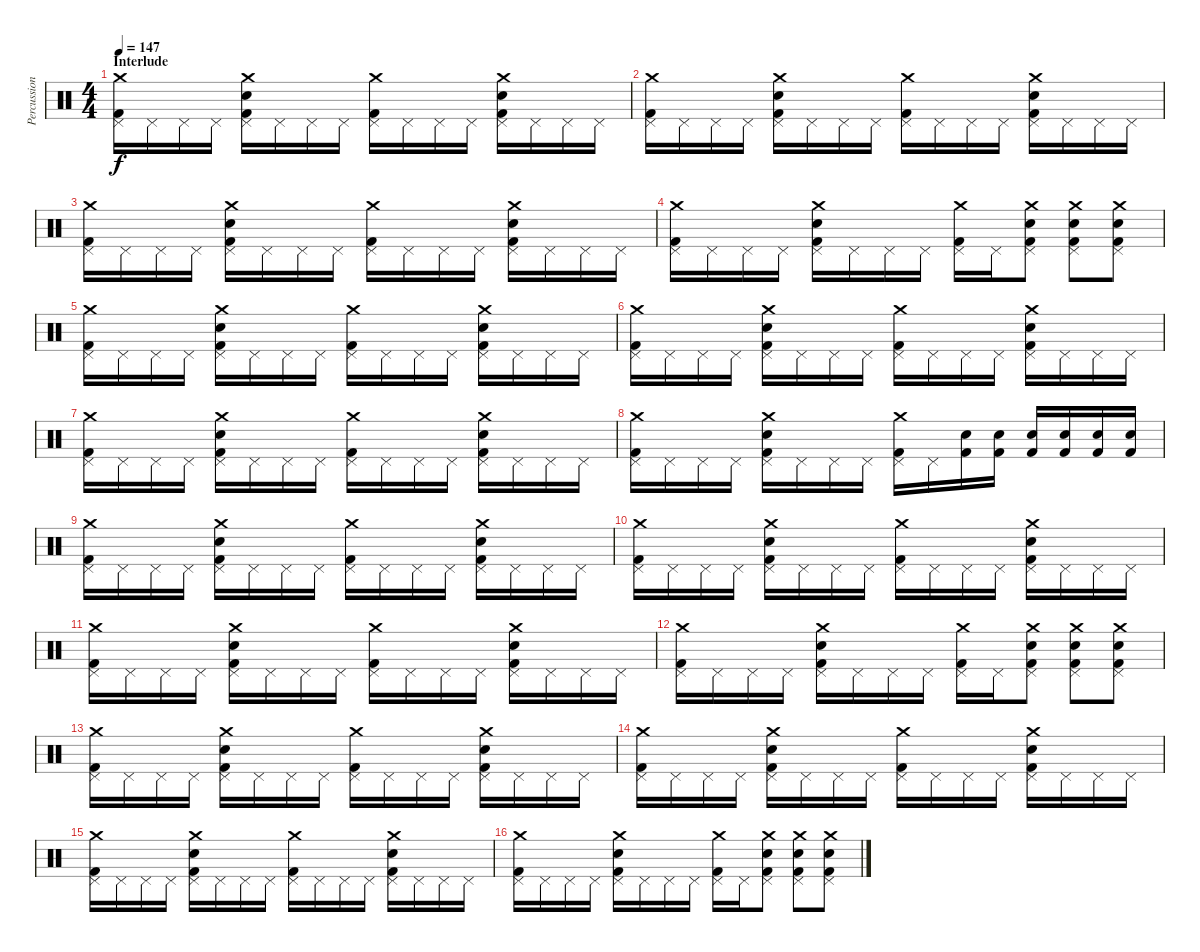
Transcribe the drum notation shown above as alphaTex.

\track ("Percussions" "Percussion") {instrument percussion}
\staff {score}
\articulation defaults
\ts (4 4)
\section ("" "Interlude")
\tempo 147
\clef neutral
\ks c
("Crash medium (hit)" "Pedal Hi-Hat (hit)" "Kick (hit) 2").16{dy f} "Pedal Hi-Hat (hit)".16 "Pedal Hi-Hat (hit)".16 "Pedal Hi-Hat (hit)".16 ("Crash medium (hit)" "Pedal Hi-Hat (hit)" "Electric Snare (hit)" "Kick (hit) 2").16 "Pedal Hi-Hat (hit)".16 "Pedal Hi-Hat (hit)".16 "Pedal Hi-Hat (hit)".16 ("Crash medium (hit)" "Pedal Hi-Hat (hit)" "Kick (hit) 2").16 "Pedal Hi-Hat (hit)".16 "Pedal Hi-Hat (hit)".16 "Pedal Hi-Hat (hit)".16 ("Crash medium (hit)" "Pedal Hi-Hat (hit)" "Electric Snare (hit)" "Kick (hit) 2").16 "Pedal Hi-Hat (hit)".16 "Pedal Hi-Hat (hit)".16 "Pedal Hi-Hat (hit)".16 |
("Crash medium (hit)" "Pedal Hi-Hat (hit)" "Kick (hit) 2").16 "Pedal Hi-Hat (hit)".16 "Pedal Hi-Hat (hit)".16 "Pedal Hi-Hat (hit)".16 ("Crash medium (hit)" "Pedal Hi-Hat (hit)" "Electric Snare (hit)" "Kick (hit) 2").16 "Pedal Hi-Hat (hit)".16 "Pedal Hi-Hat (hit)".16 "Pedal Hi-Hat (hit)".16 ("Crash medium (hit)" "Pedal Hi-Hat (hit)" "Kick (hit) 2").16 "Pedal Hi-Hat (hit)".16 "Pedal Hi-Hat (hit)".16 "Pedal Hi-Hat (hit)".16 ("Crash medium (hit)" "Pedal Hi-Hat (hit)" "Electric Snare (hit)" "Kick (hit) 2").16 "Pedal Hi-Hat (hit)".16 "Pedal Hi-Hat (hit)".16 "Pedal Hi-Hat (hit)".16 |
("Crash medium (hit)" "Pedal Hi-Hat (hit)" "Kick (hit) 2").16 "Pedal Hi-Hat (hit)".16 "Pedal Hi-Hat (hit)".16 "Pedal Hi-Hat (hit)".16 ("Crash medium (hit)" "Pedal Hi-Hat (hit)" "Electric Snare (hit)" "Kick (hit) 2").16 "Pedal Hi-Hat (hit)".16 "Pedal Hi-Hat (hit)".16 "Pedal Hi-Hat (hit)".16 ("Crash medium (hit)" "Pedal Hi-Hat (hit)" "Kick (hit) 2").16 "Pedal Hi-Hat (hit)".16 "Pedal Hi-Hat (hit)".16 "Pedal Hi-Hat (hit)".16 ("Crash medium (hit)" "Pedal Hi-Hat (hit)" "Electric Snare (hit)" "Kick (hit) 2").16 "Pedal Hi-Hat (hit)".16 "Pedal Hi-Hat (hit)".16 "Pedal Hi-Hat (hit)".16 |
("Crash medium (hit)" "Pedal Hi-Hat (hit)" "Kick (hit) 2").16 "Pedal Hi-Hat (hit)".16 "Pedal Hi-Hat (hit)".16 "Pedal Hi-Hat (hit)".16 ("Crash medium (hit)" "Pedal Hi-Hat (hit)" "Electric Snare (hit)" "Kick (hit) 2").16 "Pedal Hi-Hat (hit)".16 "Pedal Hi-Hat (hit)".16 "Pedal Hi-Hat (hit)".16 ("Crash medium (hit)" "Pedal Hi-Hat (hit)" "Kick (hit) 2").16 "Pedal Hi-Hat (hit)".16 ("Crash medium (hit)" "Pedal Hi-Hat (hit)" "Electric Snare (hit)" "Kick (hit) 2").8 ("Crash medium (hit)" "Pedal Hi-Hat (hit)" "Electric Snare (hit)" "Kick (hit) 2").8 ("Crash medium (hit)" "Pedal Hi-Hat (hit)" "Electric Snare (hit)" "Kick (hit) 2").8 |
("Crash medium (hit)" "Pedal Hi-Hat (hit)" "Kick (hit) 2").16 "Pedal Hi-Hat (hit)".16 "Pedal Hi-Hat (hit)".16 "Pedal Hi-Hat (hit)".16 ("Crash medium (hit)" "Pedal Hi-Hat (hit)" "Electric Snare (hit)" "Kick (hit) 2").16 "Pedal Hi-Hat (hit)".16 "Pedal Hi-Hat (hit)".16 "Pedal Hi-Hat (hit)".16 ("Crash medium (hit)" "Pedal Hi-Hat (hit)" "Kick (hit) 2").16 "Pedal Hi-Hat (hit)".16 "Pedal Hi-Hat (hit)".16 "Pedal Hi-Hat (hit)".16 ("Crash medium (hit)" "Pedal Hi-Hat (hit)" "Electric Snare (hit)" "Kick (hit) 2").16 "Pedal Hi-Hat (hit)".16 "Pedal Hi-Hat (hit)".16 "Pedal Hi-Hat (hit)".16 |
("Crash medium (hit)" "Pedal Hi-Hat (hit)" "Kick (hit) 2").16 "Pedal Hi-Hat (hit)".16 "Pedal Hi-Hat (hit)".16 "Pedal Hi-Hat (hit)".16 ("Crash medium (hit)" "Pedal Hi-Hat (hit)" "Electric Snare (hit)" "Kick (hit) 2").16 "Pedal Hi-Hat (hit)".16 "Pedal Hi-Hat (hit)".16 "Pedal Hi-Hat (hit)".16 ("Crash medium (hit)" "Pedal Hi-Hat (hit)" "Kick (hit) 2").16 "Pedal Hi-Hat (hit)".16 "Pedal Hi-Hat (hit)".16 "Pedal Hi-Hat (hit)".16 ("Crash medium (hit)" "Pedal Hi-Hat (hit)" "Electric Snare (hit)" "Kick (hit) 2").16 "Pedal Hi-Hat (hit)".16 "Pedal Hi-Hat (hit)".16 "Pedal Hi-Hat (hit)".16 |
("Crash medium (hit)" "Pedal Hi-Hat (hit)" "Kick (hit) 2").16 "Pedal Hi-Hat (hit)".16 "Pedal Hi-Hat (hit)".16 "Pedal Hi-Hat (hit)".16 ("Crash medium (hit)" "Pedal Hi-Hat (hit)" "Electric Snare (hit)" "Kick (hit) 2").16 "Pedal Hi-Hat (hit)".16 "Pedal Hi-Hat (hit)".16 "Pedal Hi-Hat (hit)".16 ("Crash medium (hit)" "Pedal Hi-Hat (hit)" "Kick (hit) 2").16 "Pedal Hi-Hat (hit)".16 "Pedal Hi-Hat (hit)".16 "Pedal Hi-Hat (hit)".16 ("Crash medium (hit)" "Pedal Hi-Hat (hit)" "Electric Snare (hit)" "Kick (hit) 2").16 "Pedal Hi-Hat (hit)".16 "Pedal Hi-Hat (hit)".16 "Pedal Hi-Hat (hit)".16 |
("Crash medium (hit)" "Pedal Hi-Hat (hit)" "Kick (hit) 2").16 "Pedal Hi-Hat (hit)".16 "Pedal Hi-Hat (hit)".16 "Pedal Hi-Hat (hit)".16 ("Crash medium (hit)" "Pedal Hi-Hat (hit)" "Electric Snare (hit)" "Kick (hit) 2").16 "Pedal Hi-Hat (hit)".16 "Pedal Hi-Hat (hit)".16 "Pedal Hi-Hat (hit)".16 ("Crash medium (hit)" "Pedal Hi-Hat (hit)" "Kick (hit) 2").16 "Pedal Hi-Hat (hit)".16 ("Electric Snare (hit)" "Kick (hit) 2").16 ("Electric Snare (hit)" "Kick (hit) 2").16 ("Electric Snare (hit)" "Kick (hit) 2").16 ("Electric Snare (hit)" "Kick (hit) 2").16 ("Electric Snare (hit)" "Kick (hit) 2").16 ("Electric Snare (hit)" "Kick (hit) 2").16 |
("Crash medium (hit)" "Pedal Hi-Hat (hit)" "Kick (hit) 2").16 "Pedal Hi-Hat (hit)".16 "Pedal Hi-Hat (hit)".16 "Pedal Hi-Hat (hit)".16 ("Crash medium (hit)" "Pedal Hi-Hat (hit)" "Electric Snare (hit)" "Kick (hit) 2").16 "Pedal Hi-Hat (hit)".16 "Pedal Hi-Hat (hit)".16 "Pedal Hi-Hat (hit)".16 ("Crash medium (hit)" "Pedal Hi-Hat (hit)" "Kick (hit) 2").16 "Pedal Hi-Hat (hit)".16 "Pedal Hi-Hat (hit)".16 "Pedal Hi-Hat (hit)".16 ("Crash medium (hit)" "Pedal Hi-Hat (hit)" "Electric Snare (hit)" "Kick (hit) 2").16 "Pedal Hi-Hat (hit)".16 "Pedal Hi-Hat (hit)".16 "Pedal Hi-Hat (hit)".16 |
("Crash medium (hit)" "Pedal Hi-Hat (hit)" "Kick (hit) 2").16 "Pedal Hi-Hat (hit)".16 "Pedal Hi-Hat (hit)".16 "Pedal Hi-Hat (hit)".16 ("Crash medium (hit)" "Pedal Hi-Hat (hit)" "Electric Snare (hit)" "Kick (hit) 2").16 "Pedal Hi-Hat (hit)".16 "Pedal Hi-Hat (hit)".16 "Pedal Hi-Hat (hit)".16 ("Crash medium (hit)" "Pedal Hi-Hat (hit)" "Kick (hit) 2").16 "Pedal Hi-Hat (hit)".16 "Pedal Hi-Hat (hit)".16 "Pedal Hi-Hat (hit)".16 ("Crash medium (hit)" "Pedal Hi-Hat (hit)" "Electric Snare (hit)" "Kick (hit) 2").16 "Pedal Hi-Hat (hit)".16 "Pedal Hi-Hat (hit)".16 "Pedal Hi-Hat (hit)".16 |
("Crash medium (hit)" "Pedal Hi-Hat (hit)" "Kick (hit) 2").16 "Pedal Hi-Hat (hit)".16 "Pedal Hi-Hat (hit)".16 "Pedal Hi-Hat (hit)".16 ("Crash medium (hit)" "Pedal Hi-Hat (hit)" "Electric Snare (hit)" "Kick (hit) 2").16 "Pedal Hi-Hat (hit)".16 "Pedal Hi-Hat (hit)".16 "Pedal Hi-Hat (hit)".16 ("Crash medium (hit)" "Pedal Hi-Hat (hit)" "Kick (hit) 2").16 "Pedal Hi-Hat (hit)".16 "Pedal Hi-Hat (hit)".16 "Pedal Hi-Hat (hit)".16 ("Crash medium (hit)" "Pedal Hi-Hat (hit)" "Electric Snare (hit)" "Kick (hit) 2").16 "Pedal Hi-Hat (hit)".16 "Pedal Hi-Hat (hit)".16 "Pedal Hi-Hat (hit)".16 |
("Crash medium (hit)" "Pedal Hi-Hat (hit)" "Kick (hit) 2").16 "Pedal Hi-Hat (hit)".16 "Pedal Hi-Hat (hit)".16 "Pedal Hi-Hat (hit)".16 ("Crash medium (hit)" "Pedal Hi-Hat (hit)" "Electric Snare (hit)" "Kick (hit) 2").16 "Pedal Hi-Hat (hit)".16 "Pedal Hi-Hat (hit)".16 "Pedal Hi-Hat (hit)".16 ("Crash medium (hit)" "Pedal Hi-Hat (hit)" "Kick (hit) 2").16 "Pedal Hi-Hat (hit)".16 ("Crash medium (hit)" "Pedal Hi-Hat (hit)" "Electric Snare (hit)" "Kick (hit) 2").8 ("Crash medium (hit)" "Pedal Hi-Hat (hit)" "Electric Snare (hit)" "Kick (hit) 2").8 ("Crash medium (hit)" "Pedal Hi-Hat (hit)" "Electric Snare (hit)" "Kick (hit) 2").8 |
("Crash medium (hit)" "Pedal Hi-Hat (hit)" "Kick (hit) 2").16 "Pedal Hi-Hat (hit)".16 "Pedal Hi-Hat (hit)".16 "Pedal Hi-Hat (hit)".16 ("Crash medium (hit)" "Pedal Hi-Hat (hit)" "Electric Snare (hit)" "Kick (hit) 2").16 "Pedal Hi-Hat (hit)".16 "Pedal Hi-Hat (hit)".16 "Pedal Hi-Hat (hit)".16 ("Crash medium (hit)" "Pedal Hi-Hat (hit)" "Kick (hit) 2").16 "Pedal Hi-Hat (hit)".16 "Pedal Hi-Hat (hit)".16 "Pedal Hi-Hat (hit)".16 ("Crash medium (hit)" "Pedal Hi-Hat (hit)" "Electric Snare (hit)" "Kick (hit) 2").16 "Pedal Hi-Hat (hit)".16 "Pedal Hi-Hat (hit)".16 "Pedal Hi-Hat (hit)".16 |
("Crash medium (hit)" "Pedal Hi-Hat (hit)" "Kick (hit) 2").16 "Pedal Hi-Hat (hit)".16 "Pedal Hi-Hat (hit)".16 "Pedal Hi-Hat (hit)".16 ("Crash medium (hit)" "Pedal Hi-Hat (hit)" "Electric Snare (hit)" "Kick (hit) 2").16 "Pedal Hi-Hat (hit)".16 "Pedal Hi-Hat (hit)".16 "Pedal Hi-Hat (hit)".16 ("Crash medium (hit)" "Pedal Hi-Hat (hit)" "Kick (hit) 2").16 "Pedal Hi-Hat (hit)".16 "Pedal Hi-Hat (hit)".16 "Pedal Hi-Hat (hit)".16 ("Crash medium (hit)" "Pedal Hi-Hat (hit)" "Electric Snare (hit)" "Kick (hit) 2").16 "Pedal Hi-Hat (hit)".16 "Pedal Hi-Hat (hit)".16 "Pedal Hi-Hat (hit)".16 |
("Crash medium (hit)" "Pedal Hi-Hat (hit)" "Kick (hit) 2").16 "Pedal Hi-Hat (hit)".16 "Pedal Hi-Hat (hit)".16 "Pedal Hi-Hat (hit)".16 ("Crash medium (hit)" "Pedal Hi-Hat (hit)" "Electric Snare (hit)" "Kick (hit) 2").16 "Pedal Hi-Hat (hit)".16 "Pedal Hi-Hat (hit)".16 "Pedal Hi-Hat (hit)".16 ("Crash medium (hit)" "Pedal Hi-Hat (hit)" "Kick (hit) 2").16 "Pedal Hi-Hat (hit)".16 "Pedal Hi-Hat (hit)".16 "Pedal Hi-Hat (hit)".16 ("Crash medium (hit)" "Pedal Hi-Hat (hit)" "Electric Snare (hit)" "Kick (hit) 2").16 "Pedal Hi-Hat (hit)".16 "Pedal Hi-Hat (hit)".16 "Pedal Hi-Hat (hit)".16 |
("Crash medium (hit)" "Pedal Hi-Hat (hit)" "Kick (hit) 2").16 "Pedal Hi-Hat (hit)".16 "Pedal Hi-Hat (hit)".16 "Pedal Hi-Hat (hit)".16 ("Crash medium (hit)" "Pedal Hi-Hat (hit)" "Electric Snare (hit)" "Kick (hit) 2").16 "Pedal Hi-Hat (hit)".16 "Pedal Hi-Hat (hit)".16 "Pedal Hi-Hat (hit)".16 ("Crash medium (hit)" "Pedal Hi-Hat (hit)" "Kick (hit) 2").16 "Pedal Hi-Hat (hit)".16 ("Crash medium (hit)" "Pedal Hi-Hat (hit)" "Electric Snare (hit)" "Kick (hit) 2").8 ("Crash medium (hit)" "Pedal Hi-Hat (hit)" "Electric Snare (hit)" "Kick (hit) 2").8 ("Crash medium (hit)" "Pedal Hi-Hat (hit)" "Electric Snare (hit)" "Kick (hit) 2").8
